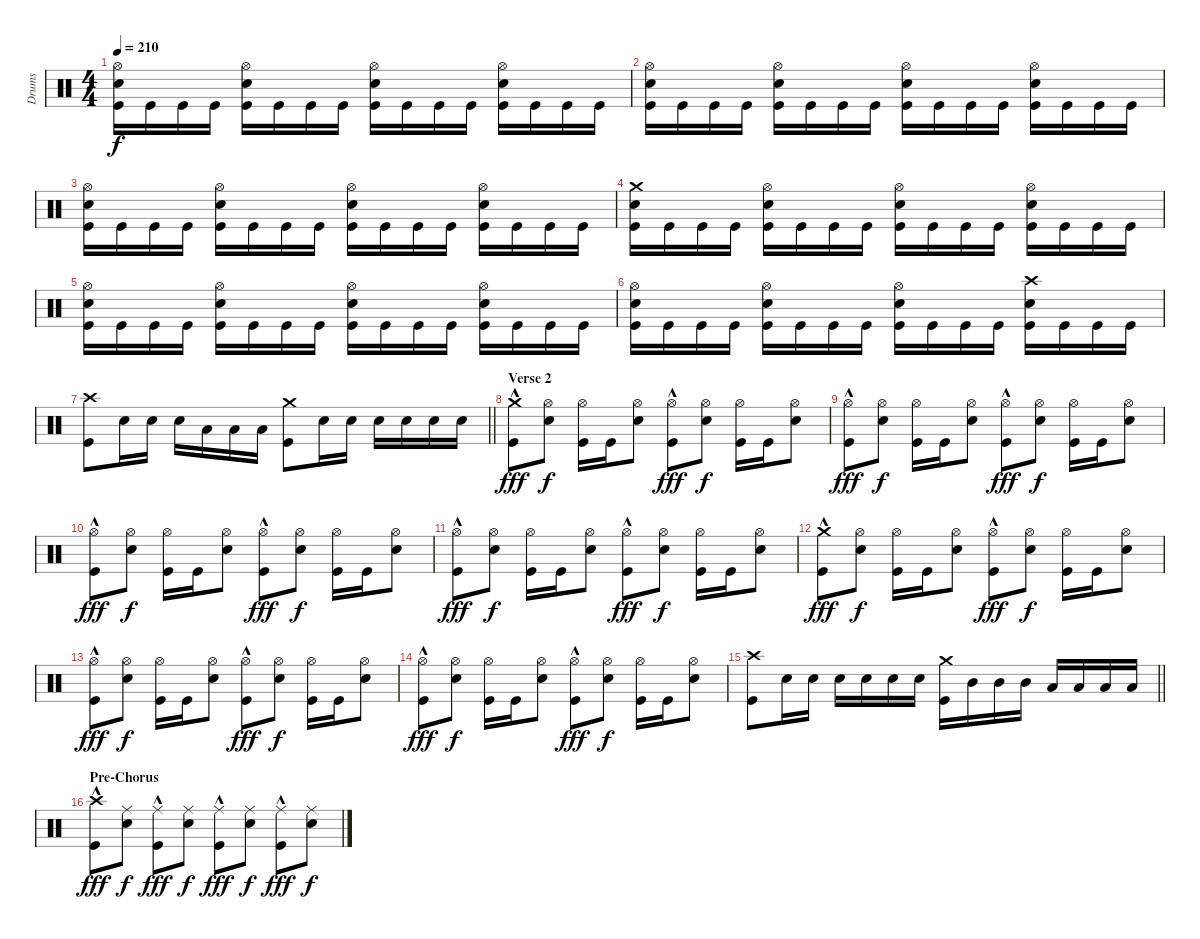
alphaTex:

\track ("Drums" "Drums") {instrument percussion}
\staff {score}
\articulation defaults
\ts (4 4)
\tempo 210
\clef neutral
\ks c
("Hi-Hat (open)" "Electric Snare (hit)" "Kick (hit)").16{dy f} "Kick (hit)".16 "Kick (hit)".16 "Kick (hit)".16 ("Hi-Hat (open)" "Electric Snare (hit)" "Kick (hit)").16 "Kick (hit)".16 "Kick (hit)".16 "Kick (hit)".16 ("Hi-Hat (open)" "Electric Snare (hit)" "Kick (hit)").16 "Kick (hit)".16 "Kick (hit)".16 "Kick (hit)".16 ("Hi-Hat (open)" "Electric Snare (hit)" "Kick (hit)").16 "Kick (hit)".16 "Kick (hit)".16 "Kick (hit)".16 |
("Hi-Hat (open)" "Electric Snare (hit)" "Kick (hit)").16 "Kick (hit)".16 "Kick (hit)".16 "Kick (hit)".16 ("Hi-Hat (open)" "Electric Snare (hit)" "Kick (hit)").16 "Kick (hit)".16 "Kick (hit)".16 "Kick (hit)".16 ("Hi-Hat (open)" "Electric Snare (hit)" "Kick (hit)").16 "Kick (hit)".16 "Kick (hit)".16 "Kick (hit)".16 ("Hi-Hat (open)" "Electric Snare (hit)" "Kick (hit)").16 "Kick (hit)".16 "Kick (hit)".16 "Kick (hit)".16 |
("Hi-Hat (open)" "Electric Snare (hit)" "Kick (hit)").16 "Kick (hit)".16 "Kick (hit)".16 "Kick (hit)".16 ("Hi-Hat (open)" "Electric Snare (hit)" "Kick (hit)").16 "Kick (hit)".16 "Kick (hit)".16 "Kick (hit)".16 ("Hi-Hat (open)" "Electric Snare (hit)" "Kick (hit)").16 "Kick (hit)".16 "Kick (hit)".16 "Kick (hit)".16 ("Hi-Hat (open)" "Electric Snare (hit)" "Kick (hit)").16 "Kick (hit)".16 "Kick (hit)".16 "Kick (hit)".16 |
("Crash medium (hit)" "Electric Snare (hit)" "Kick (hit)").16 "Kick (hit)".16 "Kick (hit)".16 "Kick (hit)".16 ("Hi-Hat (open)" "Electric Snare (hit)" "Kick (hit)").16 "Kick (hit)".16 "Kick (hit)".16 "Kick (hit)".16 ("Hi-Hat (open)" "Electric Snare (hit)" "Kick (hit)").16 "Kick (hit)".16 "Kick (hit)".16 "Kick (hit)".16 ("Hi-Hat (open)" "Electric Snare (hit)" "Kick (hit)").16 "Kick (hit)".16 "Kick (hit)".16 "Kick (hit)".16 |
("Hi-Hat (open)" "Electric Snare (hit)" "Kick (hit)").16 "Kick (hit)".16 "Kick (hit)".16 "Kick (hit)".16 ("Hi-Hat (open)" "Electric Snare (hit)" "Kick (hit)").16 "Kick (hit)".16 "Kick (hit)".16 "Kick (hit)".16 ("Hi-Hat (open)" "Electric Snare (hit)" "Kick (hit)").16 "Kick (hit)".16 "Kick (hit)".16 "Kick (hit)".16 ("Hi-Hat (open)" "Electric Snare (hit)" "Kick (hit)").16 "Kick (hit)".16 "Kick (hit)".16 "Kick (hit)".16 |
("Hi-Hat (open)" "Electric Snare (hit)" "Kick (hit)").16 "Kick (hit)".16 "Kick (hit)".16 "Kick (hit)".16 ("Hi-Hat (open)" "Electric Snare (hit)" "Kick (hit)").16 "Kick (hit)".16 "Kick (hit)".16 "Kick (hit)".16 ("Hi-Hat (open)" "Electric Snare (hit)" "Kick (hit)").16 "Kick (hit)".16 "Kick (hit)".16 "Kick (hit)".16 ("Crash high (hit)" "Electric Snare (hit)" "Kick (hit)").16 "Kick (hit)".16 "Kick (hit)".16 "Kick (hit)".16 |
\barLineRight lightlight
("Crash high (hit)" "Kick (hit)").8 "Snare (hit) 2".16 "Snare (hit) 2".16 "Snare (hit) 2".16 "Low Tom (hit)".16 "Low Tom (hit)".16 "Low Tom (hit)".16 ("Crash medium (hit)" "Kick (hit)").8 "Snare (hit) 2".16 "Snare (hit) 2".16 "Snare (hit) 2".16 "Snare (hit) 2".16 "Snare (hit) 2".16 "Snare (hit) 2".16 |
\section ("" "Verse 2")
("Crash medium (hit)" "Kick (hit)"{hac}).8{dy fff} ("Hi-Hat (open)" "Electric Snare (hit)").8{dy f} ("Hi-Hat (open)" "Kick (hit)").16 "Kick (hit)".16 ("Hi-Hat (open)" "Electric Snare (hit)").8 ("Hi-Hat (open)" "Kick (hit)"{hac}).8{dy fff} ("Hi-Hat (open)" "Electric Snare (hit)").8{dy f} ("Hi-Hat (open)" "Kick (hit)").16 "Kick (hit)".16 ("Hi-Hat (open)" "Electric Snare (hit)").8 |
("Hi-Hat (open)" "Kick (hit)"{hac}).8{dy fff} ("Hi-Hat (open)" "Electric Snare (hit)").8{dy f} ("Hi-Hat (open)" "Kick (hit)").16 "Kick (hit)".16 ("Hi-Hat (open)" "Electric Snare (hit)").8 ("Hi-Hat (open)" "Kick (hit)"{hac}).8{dy fff} ("Hi-Hat (open)" "Electric Snare (hit)").8{dy f} ("Hi-Hat (open)" "Kick (hit)").16 "Kick (hit)".16 ("Hi-Hat (open)" "Electric Snare (hit)").8 |
("Hi-Hat (open)" "Kick (hit)"{hac}).8{dy fff} ("Hi-Hat (open)" "Electric Snare (hit)").8{dy f} ("Hi-Hat (open)" "Kick (hit)").16 "Kick (hit)".16 ("Hi-Hat (open)" "Electric Snare (hit)").8 ("Hi-Hat (open)" "Kick (hit)"{hac}).8{dy fff} ("Hi-Hat (open)" "Electric Snare (hit)").8{dy f} ("Hi-Hat (open)" "Kick (hit)").16 "Kick (hit)".16 ("Hi-Hat (open)" "Electric Snare (hit)").8 |
("Hi-Hat (open)" "Kick (hit)"{hac}).8{dy fff} ("Hi-Hat (open)" "Electric Snare (hit)").8{dy f} ("Hi-Hat (open)" "Kick (hit)").16 "Kick (hit)".16 ("Hi-Hat (open)" "Electric Snare (hit)").8 ("Hi-Hat (open)" "Kick (hit)"{hac}).8{dy fff} ("Hi-Hat (open)" "Electric Snare (hit)").8{dy f} ("Hi-Hat (open)" "Kick (hit)").16 "Kick (hit)".16 ("Hi-Hat (open)" "Electric Snare (hit)").8 |
("Crash medium (hit)" "Kick (hit)"{hac}).8{dy fff} ("Hi-Hat (open)" "Electric Snare (hit)").8{dy f} ("Hi-Hat (open)" "Kick (hit)").16 "Kick (hit)".16 ("Hi-Hat (open)" "Electric Snare (hit)").8 ("Hi-Hat (open)" "Kick (hit)"{hac}).8{dy fff} ("Hi-Hat (open)" "Electric Snare (hit)").8{dy f} ("Hi-Hat (open)" "Kick (hit)").16 "Kick (hit)".16 ("Hi-Hat (open)" "Electric Snare (hit)").8 |
("Hi-Hat (open)" "Kick (hit)"{hac}).8{dy fff} ("Hi-Hat (open)" "Electric Snare (hit)").8{dy f} ("Hi-Hat (open)" "Kick (hit)").16 "Kick (hit)".16 ("Hi-Hat (open)" "Electric Snare (hit)").8 ("Hi-Hat (open)" "Kick (hit)"{hac}).8{dy fff} ("Hi-Hat (open)" "Electric Snare (hit)").8{dy f} ("Hi-Hat (open)" "Kick (hit)").16 "Kick (hit)".16 ("Hi-Hat (open)" "Electric Snare (hit)").8 |
("Hi-Hat (open)" "Kick (hit)"{hac}).8{dy fff} ("Hi-Hat (open)" "Electric Snare (hit)").8{dy f} ("Hi-Hat (open)" "Kick (hit)").16 "Kick (hit)".16 ("Hi-Hat (open)" "Electric Snare (hit)").8 ("Hi-Hat (open)" "Kick (hit)"{hac}).8{dy fff} ("Hi-Hat (open)" "Electric Snare (hit)").8{dy f} ("Hi-Hat (open)" "Kick (hit)").16 "Kick (hit)".16 ("Hi-Hat (open)" "Electric Snare (hit)").8 |
\barLineRight lightlight
("Crash high (hit)" "Kick (hit)").8 "Snare (hit) 2".16 "Snare (hit) 2".16 "Snare (hit) 2".16 "Snare (hit) 2".16 "Snare (hit) 2".16 "Snare (hit) 2".16 ("Crash medium (hit)" "Kick (hit)").16 "Mid Tom (hit)".16 "Mid Tom (hit)".16 "Mid Tom (hit)".16 "Low Tom (hit)".16 "Low Tom (hit)".16 "Low Tom (hit)".16 "Low Tom (hit)".16 |
\section ("" "Pre-Chorus")
("Crash high (hit)" "Kick (hit)"{hac}).8{dy fff} ("Ride (middle)" "Electric Snare (hit)").8{dy f} ("Ride (middle)" "Kick (hit)"{hac}).8{dy fff} ("Ride (middle)" "Electric Snare (hit)").8{dy f} ("Ride (middle)" "Kick (hit)"{hac}).8{dy fff} ("Ride (middle)" "Electric Snare (hit)").8{dy f} ("Ride (middle)" "Kick (hit)"{hac}).8{dy fff} ("Ride (middle)" "Electric Snare (hit)").8{dy f}
